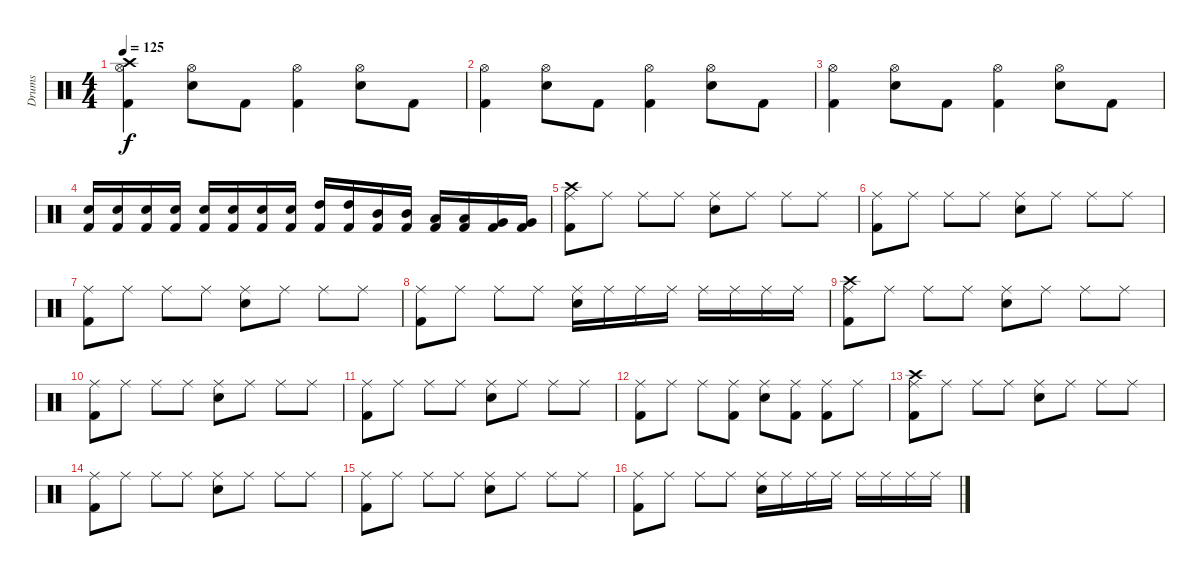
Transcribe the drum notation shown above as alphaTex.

\track ("Drums" "Drums") {instrument percussion}
\staff {score}
\articulation defaults
\ts (4 4)
\tempo 125
\clef neutral
\ks c
("Crash high (hit)" "Hi-Hat (open)" "Kick (hit) 2").4{dy f} ("Hi-Hat (open)" "Snare (hit) 2").8 "Kick (hit) 2".8 ("Hi-Hat (open)" "Kick (hit) 2").4 ("Hi-Hat (open)" "Snare (hit) 2").8 "Kick (hit) 2".8 |
("Hi-Hat (open)" "Kick (hit) 2").4 ("Hi-Hat (open)" "Snare (hit) 2").8 "Kick (hit) 2".8 ("Hi-Hat (open)" "Kick (hit) 2").4 ("Hi-Hat (open)" "Snare (hit) 2").8 "Kick (hit) 2".8 |
("Hi-Hat (open)" "Kick (hit) 2").4 ("Hi-Hat (open)" "Snare (hit) 2").8 "Kick (hit) 2".8 ("Hi-Hat (open)" "Kick (hit) 2").4 ("Hi-Hat (open)" "Snare (hit) 2").8 "Kick (hit) 2".8 |
("Snare (hit) 2" "Kick (hit) 2").16 ("Snare (hit) 2" "Kick (hit) 2").16 ("Snare (hit) 2" "Kick (hit) 2").16 ("Snare (hit) 2" "Kick (hit) 2").16 ("Snare (hit) 2" "Kick (hit) 2").16 ("Snare (hit) 2" "Kick (hit) 2").16 ("Snare (hit) 2" "Kick (hit) 2").16 ("Snare (hit) 2" "Kick (hit) 2").16 ("High Tom (hit)" "Kick (hit) 2").16 ("High Tom (hit)" "Kick (hit) 2").16 ("Mid Tom (hit)" "Kick (hit) 2").16 ("Mid Tom (hit)" "Kick (hit) 2").16 ("Low Tom (hit)" "Kick (hit) 2").16 ("Low Tom (hit)" "Kick (hit) 2").16 ("Very Low Tom (hit)" "Kick (hit) 2").16 ("Very Low Tom (hit)" "Kick (hit) 2").16 |
("Crash high (hit)" "Ride (middle)" "Kick (hit) 2").8 "Ride (middle)".8 "Ride (middle)".8 "Ride (middle)".8 ("Ride (middle)" "Snare (hit) 2").8 "Ride (middle)".8 "Ride (middle)".8 "Ride (middle)".8 |
("Ride (middle)" "Kick (hit) 2").8 "Ride (middle)".8 "Ride (middle)".8 "Ride (middle)".8 ("Ride (middle)" "Snare (hit) 2").8 "Ride (middle)".8 "Ride (middle)".8 "Ride (middle)".8 |
("Ride (middle)" "Kick (hit) 2").8 "Ride (middle)".8 "Ride (middle)".8 "Ride (middle)".8 ("Ride (middle)" "Snare (hit) 2").8 "Ride (middle)".8 "Ride (middle)".8 "Ride (middle)".8 |
("Ride (middle)" "Kick (hit) 2").8 "Ride (middle)".8 "Ride (middle)".8 "Ride (middle)".8 ("Ride (middle)" "Snare (hit) 2").16 "Ride (middle)".16 "Ride (middle)".16 "Ride (middle)".16 "Ride (middle)".16 "Ride (middle)".16 "Ride (middle)".16 "Ride (middle)".16 |
("Crash high (hit)" "Ride (middle)" "Kick (hit) 2").8 "Ride (middle)".8 "Ride (middle)".8 "Ride (middle)".8 ("Ride (middle)" "Snare (hit) 2").8 "Ride (middle)".8 "Ride (middle)".8 "Ride (middle)".8 |
("Ride (middle)" "Kick (hit) 2").8 "Ride (middle)".8 "Ride (middle)".8 "Ride (middle)".8 ("Ride (middle)" "Snare (hit) 2").8 "Ride (middle)".8 "Ride (middle)".8 "Ride (middle)".8 |
("Ride (middle)" "Kick (hit) 2").8 "Ride (middle)".8 "Ride (middle)".8 "Ride (middle)".8 ("Ride (middle)" "Snare (hit) 2").8 "Ride (middle)".8 "Ride (middle)".8 "Ride (middle)".8 |
("Ride (middle)" "Kick (hit) 2").8 "Ride (middle)".8 "Ride (middle)".8 ("Ride (middle)" "Kick (hit) 2").8 ("Ride (middle)" "Snare (hit) 2").8 ("Ride (middle)" "Kick (hit) 2").8 ("Ride (middle)" "Kick (hit) 2").8 "Ride (middle)".8 |
("Crash high (hit)" "Ride (middle)" "Kick (hit) 2").8 "Ride (middle)".8 "Ride (middle)".8 "Ride (middle)".8 ("Ride (middle)" "Snare (hit) 2").8 "Ride (middle)".8 "Ride (middle)".8 "Ride (middle)".8 |
("Ride (middle)" "Kick (hit) 2").8 "Ride (middle)".8 "Ride (middle)".8 "Ride (middle)".8 ("Ride (middle)" "Snare (hit) 2").8 "Ride (middle)".8 "Ride (middle)".8 "Ride (middle)".8 |
("Ride (middle)" "Kick (hit) 2").8 "Ride (middle)".8 "Ride (middle)".8 "Ride (middle)".8 ("Ride (middle)" "Snare (hit) 2").8 "Ride (middle)".8 "Ride (middle)".8 "Ride (middle)".8 |
("Ride (middle)" "Kick (hit) 2").8 "Ride (middle)".8 "Ride (middle)".8 "Ride (middle)".8 ("Ride (middle)" "Snare (hit) 2").16 "Ride (middle)".16 "Ride (middle)".16 "Ride (middle)".16 "Ride (middle)".16 "Ride (middle)".16 "Ride (middle)".16 "Ride (middle)".16
